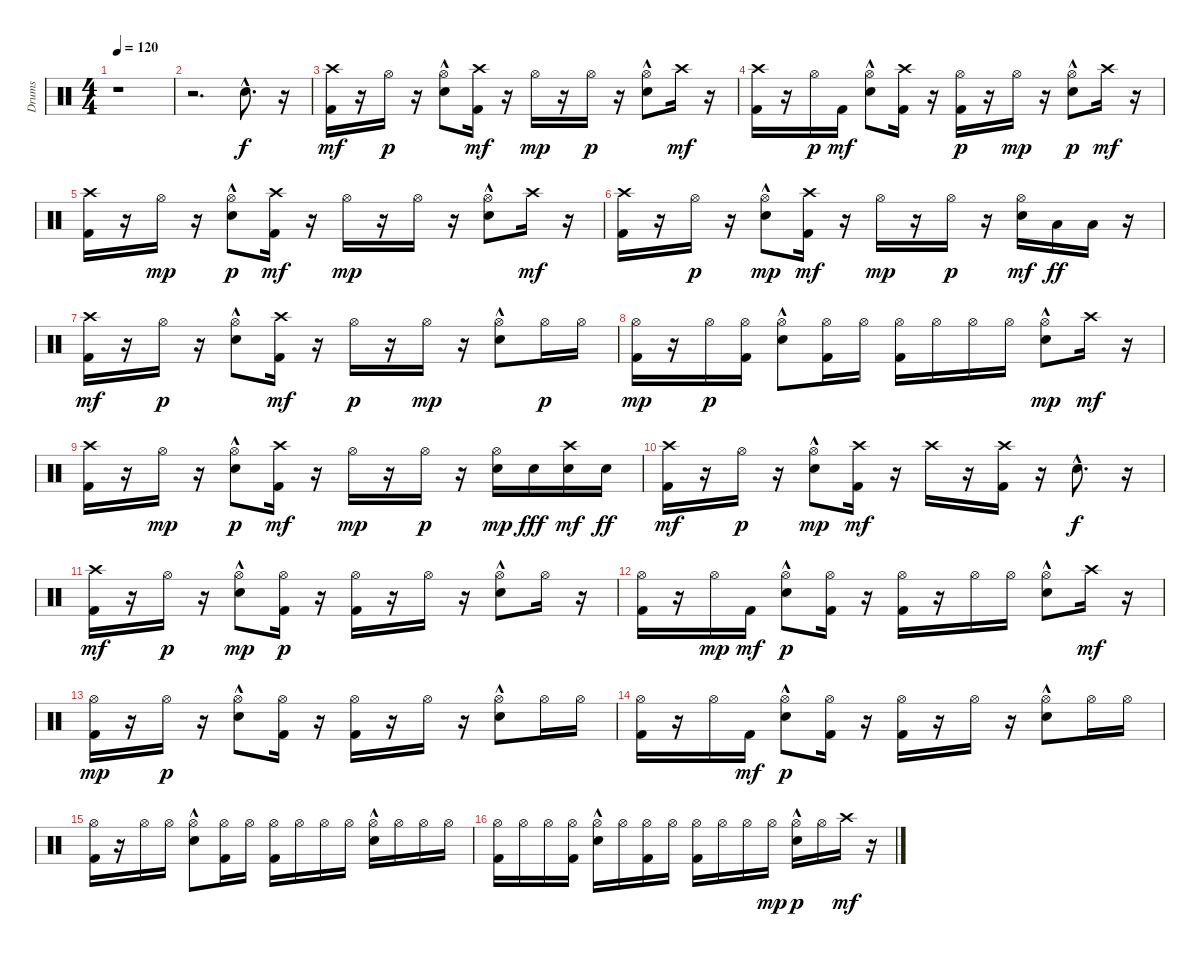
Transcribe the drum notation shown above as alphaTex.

\track ("Drums" "Drums") {instrument percussion}
\staff {score}
\articulation defaults
\ts (4 4)
\tempo 120
\clef neutral
\ks c
r.1{dy f} |
r.2{d} "Electric Snare (hit)"{hac}.8{d} r.16 |
("Kick (hit) 2" "Crash high (hit)").16{dy mf} r.16 "Hi-Hat (open)".16{dy p} r.16 ("Electric Snare (hit)"{hac} "Hi-Hat (open)").8 ("Kick (hit) 2" "Crash high (hit)").16{dy mf} r.16 "Hi-Hat (open)".16{dy mp} r.16 "Hi-Hat (open)".16{dy p} r.16 ("Electric Snare (hit)"{hac} "Hi-Hat (open)").8 "Crash high (hit)".16{dy mf} r.16 |
("Kick (hit) 2" "Crash high (hit)").16 r.16 "Hi-Hat (open)".16{dy p} "Kick (hit) 2".16{dy mf} ("Electric Snare (hit)"{hac} "Hi-Hat (open)").8 ("Kick (hit) 2" "Crash high (hit)").16 r.16 ("Kick (hit) 2" "Hi-Hat (open)").16{dy p} r.16 "Hi-Hat (open)".16{dy mp} r.16 ("Electric Snare (hit)"{hac} "Hi-Hat (open)").8{dy p} "Crash high (hit)".16{dy mf} r.16 |
("Kick (hit) 2" "Crash high (hit)").16 r.16 "Hi-Hat (open)".16{dy mp} r.16 ("Electric Snare (hit)"{hac} "Hi-Hat (open)").8{dy p} ("Kick (hit) 2" "Crash high (hit)").16{dy mf} r.16 "Hi-Hat (open)".16{dy mp} r.16 "Hi-Hat (open)".16 r.16 ("Electric Snare (hit)"{hac} "Hi-Hat (open)").8 "Crash high (hit)".16{dy mf} r.16 |
("Kick (hit) 2" "Crash high (hit)").16 r.16 "Hi-Hat (open)".16{dy p} r.16 ("Electric Snare (hit)"{hac} "Hi-Hat (open)").8{dy mp} ("Kick (hit) 2" "Crash high (hit)").16{dy mf} r.16 "Hi-Hat (open)".16{dy mp} r.16 "Hi-Hat (open)".16{dy p} r.16 ("Electric Snare (hit)" "Hi-Hat (open)").16{dy mf} "Low Tom (hit)".16{dy ff} "Low Floor Tom (hit)".16 r.16 |
("Kick (hit) 2" "Crash high (hit)").16{dy mf} r.16 "Hi-Hat (open)".16{dy p} r.16 ("Electric Snare (hit)"{hac} "Hi-Hat (open)").8 ("Kick (hit) 2" "Crash high (hit)").16{dy mf} r.16 "Hi-Hat (open)".16{dy p} r.16 "Hi-Hat (open)".16{dy mp} r.16 ("Electric Snare (hit)"{hac} "Hi-Hat (open)").8 "Hi-Hat (open)".16{dy p} "Hi-Hat (open)".16 |
("Kick (hit) 2" "Hi-Hat (open)").16{dy mp} r.16 "Hi-Hat (open)".16{dy p} ("Kick (hit) 2" "Hi-Hat (open)").16 ("Electric Snare (hit)"{hac} "Hi-Hat (open)").8 ("Kick (hit) 2" "Hi-Hat (open)").16 "Hi-Hat (open)".16 ("Kick (hit) 2" "Hi-Hat (open)").16 "Hi-Hat (open)".16 "Hi-Hat (open)".16 "Hi-Hat (open)".16 ("Electric Snare (hit)"{hac} "Hi-Hat (open)").8{dy mp} "Crash high (hit)".16{dy mf} r.16 |
("Kick (hit) 2" "Crash high (hit)").16 r.16 "Hi-Hat (open)".16{dy mp} r.16 ("Electric Snare (hit)"{hac} "Hi-Hat (open)").8{dy p} ("Kick (hit) 2" "Crash high (hit)").16{dy mf} r.16 "Hi-Hat (open)".16{dy mp} r.16 "Hi-Hat (open)".16{dy p} r.16 ("Electric Snare (hit)" "Hi-Hat (open)").16{dy mp} "Electric Snare (hit)".16{dy fff} ("Electric Snare (hit)" "Crash high (hit)").16{dy mf} "Electric Snare (hit)".16{dy ff} |
("Kick (hit) 2" "Crash high (hit)").16{dy mf} r.16 "Hi-Hat (open)".16{dy p} r.16 ("Electric Snare (hit)"{hac} "Hi-Hat (open)").8{dy mp} ("Kick (hit) 2" "Crash high (hit)").16{dy mf} r.16 "Crash high (hit)".16 r.16 ("Kick (hit) 2" "Crash high (hit)").16 r.16 "Electric Snare (hit)"{hac}.8{d dy f} r.16 |
("Kick (hit) 2" "Crash high (hit)").16{dy mf} r.16 "Hi-Hat (open)".16{dy p} r.16 ("Electric Snare (hit)"{hac} "Hi-Hat (open)").8{dy mp} ("Kick (hit) 2" "Hi-Hat (open)").16{dy p} r.16 ("Kick (hit) 2" "Hi-Hat (open)").16 r.16 "Hi-Hat (open)".16 r.16 ("Electric Snare (hit)"{hac} "Hi-Hat (open)").8 "Hi-Hat (open)".16 r.16 |
("Kick (hit) 2" "Hi-Hat (open)").16 r.16 "Hi-Hat (open)".16{dy mp} "Kick (hit) 2".16{dy mf} ("Electric Snare (hit)"{hac} "Hi-Hat (open)").8{dy p} ("Kick (hit) 2" "Hi-Hat (open)").16 r.16 ("Kick (hit) 2" "Hi-Hat (open)").16 r.16 "Hi-Hat (open)".16 "Hi-Hat (open)".16 ("Electric Snare (hit)"{hac} "Hi-Hat (open)").8 "Crash high (hit)".16{dy mf} r.16 |
("Kick (hit) 2" "Hi-Hat (open)").16{dy mp} r.16 "Hi-Hat (open)".16{dy p} r.16 ("Electric Snare (hit)"{hac} "Hi-Hat (open)").8 ("Kick (hit) 2" "Hi-Hat (open)").16 r.16 ("Kick (hit) 2" "Hi-Hat (open)").16 r.16 "Hi-Hat (open)".16 r.16 ("Electric Snare (hit)"{hac} "Hi-Hat (open)").8 "Hi-Hat (open)".16 "Hi-Hat (open)".16 |
("Kick (hit) 2" "Hi-Hat (open)").16 r.16 "Hi-Hat (open)".16 "Kick (hit) 2".16{dy mf} ("Electric Snare (hit)"{hac} "Hi-Hat (open)").8{dy p} ("Kick (hit) 2" "Hi-Hat (open)").16 r.16 ("Kick (hit) 2" "Hi-Hat (open)").16 r.16 "Hi-Hat (open)".16 r.16 ("Electric Snare (hit)"{hac} "Hi-Hat (open)").8 "Hi-Hat (open)".16 "Hi-Hat (open)".16 |
("Kick (hit) 2" "Hi-Hat (open)").16 r.16 "Hi-Hat (open)".16 "Hi-Hat (open)".16 ("Electric Snare (hit)"{hac} "Hi-Hat (open)").8 ("Kick (hit) 2" "Hi-Hat (open)").16 "Hi-Hat (open)".16 ("Kick (hit) 2" "Hi-Hat (open)").16 "Hi-Hat (open)".16 "Hi-Hat (open)".16 "Hi-Hat (open)".16 ("Electric Snare (hit)"{hac} "Hi-Hat (open)").16 "Hi-Hat (open)".16 "Hi-Hat (open)".16 "Hi-Hat (open)".16 |
("Kick (hit) 2" "Hi-Hat (open)").16 "Hi-Hat (open)".16 "Hi-Hat (open)".16 ("Kick (hit) 2" "Hi-Hat (open)").16 ("Electric Snare (hit)"{hac} "Hi-Hat (open)").16 "Hi-Hat (open)".16 ("Kick (hit) 2" "Hi-Hat (open)").16 "Hi-Hat (open)".16 ("Kick (hit) 2" "Hi-Hat (open)").16 "Hi-Hat (open)".16 "Hi-Hat (open)".16 "Hi-Hat (open)".16{dy mp} ("Electric Snare (hit)"{hac} "Hi-Hat (open)").16{dy p} "Hi-Hat (open)".16 "Crash high (hit)".16{dy mf} r.16
